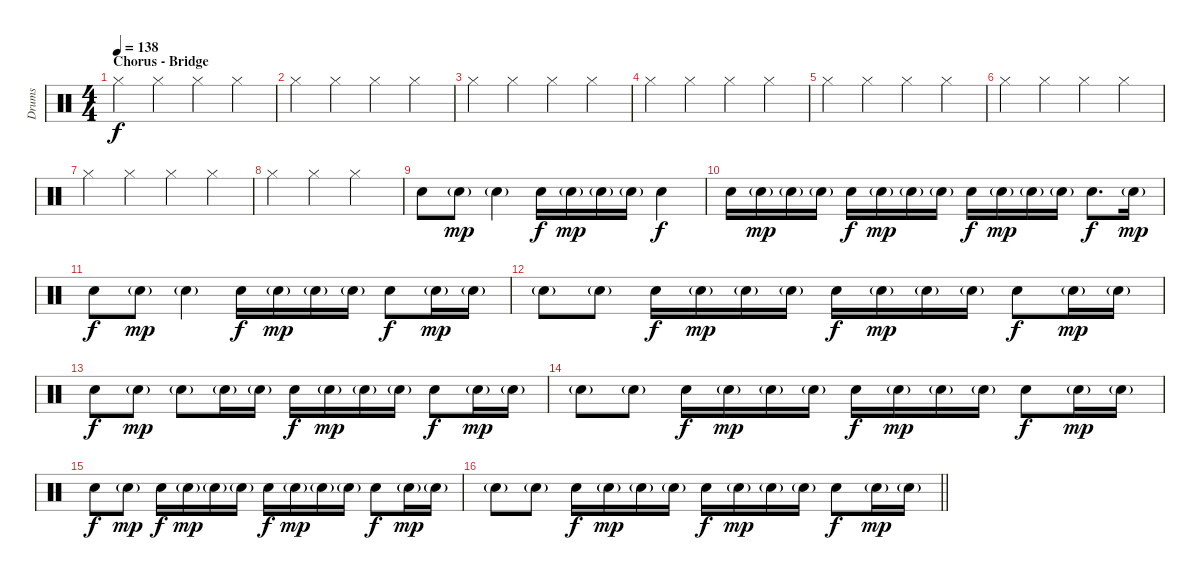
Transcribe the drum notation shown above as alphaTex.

\track ("Drums" "Drums") {instrument percussion}
\staff {score}
\articulation defaults
\ts (4 4)
\section ("" "Chorus - Bridge")
\tempo 138
\clef neutral
\ks c "Hi-Hat (closed)".4{dy f} "Hi-Hat (closed)".4 "Hi-Hat (closed)".4 "Hi-Hat (closed)".4
|
"Hi-Hat (closed)".4 "Hi-Hat (closed)".4 "Hi-Hat (closed)".4 "Hi-Hat (closed)".4 |
"Hi-Hat (closed)".4 "Hi-Hat (closed)".4 "Hi-Hat (closed)".4 "Hi-Hat (closed)".4 |
"Hi-Hat (closed)".4 "Hi-Hat (closed)".4 "Hi-Hat (closed)".4 "Hi-Hat (closed)".4 |
"Hi-Hat (closed)".4 "Hi-Hat (closed)".4 "Hi-Hat (closed)".4 "Hi-Hat (closed)".4 |
"Hi-Hat (closed)".4 "Hi-Hat (closed)".4 "Hi-Hat (closed)".4 "Hi-Hat (closed)".4 |
"Hi-Hat (closed)".4 "Hi-Hat (closed)".4 "Hi-Hat (closed)".4 "Hi-Hat (closed)".4 |
"Hi-Hat (closed)".4 "Hi-Hat (closed)".4 "Hi-Hat (closed)".2 |
"Electric Snare (hit)".8 "Electric Snare (hit)"{g}.8{dy mp} "Electric Snare (hit)"{g}.4 "Electric Snare (hit)".16{dy f} "Electric Snare (hit)"{g}.16{dy mp} "Electric Snare (hit)"{g}.16 "Electric Snare (hit)"{g}.16 "Electric Snare (hit)".4{dy f} |
"Electric Snare (hit)".16 "Electric Snare (hit)"{g}.16{dy mp} "Electric Snare (hit)"{g}.16 "Electric Snare (hit)"{g}.16 "Electric Snare (hit)".16{dy f} "Electric Snare (hit)"{g}.16{dy mp} "Electric Snare (hit)"{g}.16 "Electric Snare (hit)"{g}.16 "Electric Snare (hit)".16{dy f} "Electric Snare (hit)"{g}.16{dy mp} "Electric Snare (hit)"{g}.16 "Electric Snare (hit)"{g}.16 "Electric Snare (hit)".8{d dy f} "Electric Snare (hit)"{g}.16{dy mp} |
"Electric Snare (hit)".8{dy f} "Electric Snare (hit)"{g}.8{dy mp} "Electric Snare (hit)"{g}.4 "Electric Snare (hit)".16{dy f} "Electric Snare (hit)"{g}.16{dy mp} "Electric Snare (hit)"{g}.16 "Electric Snare (hit)"{g}.16 "Electric Snare (hit)".8{dy f} "Electric Snare (hit)"{g}.16{dy mp} "Electric Snare (hit)"{g}.16 |
"Electric Snare (hit)"{g}.8 "Electric Snare (hit)"{g}.8 "Electric Snare (hit)".16{dy f} "Electric Snare (hit)"{g}.16{dy mp} "Electric Snare (hit)"{g}.16 "Electric Snare (hit)"{g}.16 "Electric Snare (hit)".16{dy f} "Electric Snare (hit)"{g}.16{dy mp} "Electric Snare (hit)"{g}.16 "Electric Snare (hit)"{g}.16 "Electric Snare (hit)".8{dy f} "Electric Snare (hit)"{g}.16{dy mp} "Electric Snare (hit)"{g}.16 |
"Electric Snare (hit)".8{dy f} "Electric Snare (hit)"{g}.8{dy mp} "Electric Snare (hit)"{g}.8 "Electric Snare (hit)"{g}.16 "Electric Snare (hit)"{g}.16 "Electric Snare (hit)".16{dy f} "Electric Snare (hit)"{g}.16{dy mp} "Electric Snare (hit)"{g}.16 "Electric Snare (hit)"{g}.16 "Electric Snare (hit)".8{dy f} "Electric Snare (hit)"{g}.16{dy mp} "Electric Snare (hit)"{g}.16 |
"Electric Snare (hit)"{g}.8 "Electric Snare (hit)"{g}.8 "Electric Snare (hit)".16{dy f} "Electric Snare (hit)"{g}.16{dy mp} "Electric Snare (hit)"{g}.16 "Electric Snare (hit)"{g}.16 "Electric Snare (hit)".16{dy f} "Electric Snare (hit)"{g}.16{dy mp} "Electric Snare (hit)"{g}.16 "Electric Snare (hit)"{g}.16 "Electric Snare (hit)".8{dy f} "Electric Snare (hit)"{g}.16{dy mp} "Electric Snare (hit)"{g}.16 |
"Electric Snare (hit)".8{dy f} "Electric Snare (hit)"{g}.8{dy mp} "Electric Snare (hit)".16{dy f} "Electric Snare (hit)"{g}.16{dy mp} "Electric Snare (hit)"{g}.16 "Electric Snare (hit)"{g}.16 "Electric Snare (hit)".16{dy f} "Electric Snare (hit)"{g}.16{dy mp} "Electric Snare (hit)"{g}.16 "Electric Snare (hit)"{g}.16 "Electric Snare (hit)".8{dy f} "Electric Snare (hit)"{g}.16{dy mp} "Electric Snare (hit)"{g}.16 |
\barLineRight lightlight "Electric Snare (hit)"{g}.8 "Electric Snare (hit)"{g}.8 "Electric Snare (hit)".16{dy f} "Electric Snare (hit)"{g}.16{dy mp} "Electric Snare (hit)"{g}.16 "Electric Snare (hit)"{g}.16 "Electric Snare (hit)".16{dy f} "Electric Snare (hit)"{g}.16{dy mp} "Electric Snare (hit)"{g}.16 "Electric Snare (hit)"{g}.16 "Electric Snare (hit)".8{dy f} "Electric Snare (hit)"{g}.16{dy mp} "Electric Snare (hit)"{g}.16
